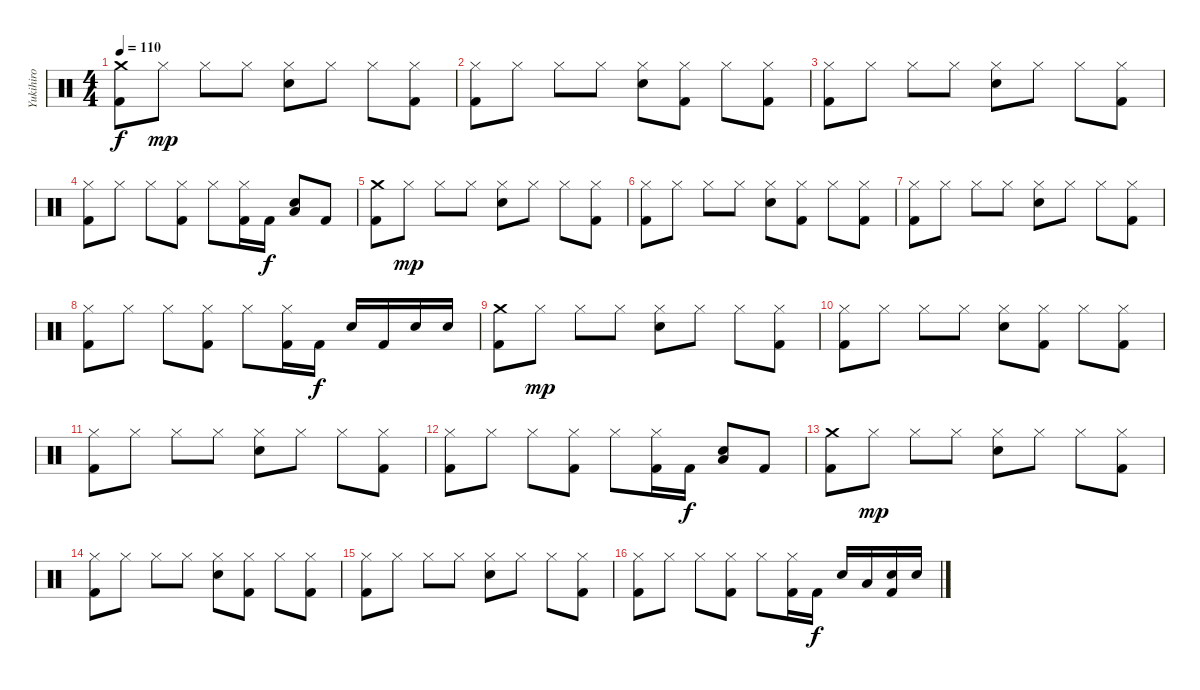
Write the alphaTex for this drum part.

\track ("Yukihiro " "Yukihiro ") {instrument percussion}
\staff {score}
\articulation defaults
\ts (4 4)
\tempo 110
\clef neutral
\ks c
("Crash medium (hit)" "Kick (hit) 2").8{dy f} "Hi-Hat (closed)".8{dy mp} "Hi-Hat (closed)".8 "Hi-Hat (closed)".8 ("Hi-Hat (closed)" "Electric Snare (hit)").8 "Hi-Hat (closed)".8 "Hi-Hat (closed)".8 ("Hi-Hat (closed)" "Kick (hit) 2").8 |
("Hi-Hat (closed)" "Kick (hit) 2").8 "Hi-Hat (closed)".8 "Hi-Hat (closed)".8 "Hi-Hat (closed)".8 ("Hi-Hat (closed)" "Electric Snare (hit)").8 ("Hi-Hat (closed)" "Kick (hit) 2").8 "Hi-Hat (closed)".8 ("Hi-Hat (closed)" "Kick (hit) 2").8 |
("Hi-Hat (closed)" "Kick (hit) 2").8 "Hi-Hat (closed)".8 "Hi-Hat (closed)".8 "Hi-Hat (closed)".8 ("Hi-Hat (closed)" "Electric Snare (hit)").8 "Hi-Hat (closed)".8 "Hi-Hat (closed)".8 ("Hi-Hat (closed)" "Kick (hit) 2").8 |
("Hi-Hat (closed)" "Kick (hit) 2").8 "Hi-Hat (closed)".8 "Hi-Hat (closed)".8 ("Hi-Hat (closed)" "Kick (hit) 2").8 "Hi-Hat (closed)".8 ("Hi-Hat (closed)" "Kick (hit) 2").16 "Kick (hit) 2".16{dy f} ("Electric Snare (hit)" "Low Floor Tom (hit)").8 "Kick (hit) 2".8 |
("Crash medium (hit)" "Kick (hit) 2").8 "Hi-Hat (closed)".8{dy mp} "Hi-Hat (closed)".8 "Hi-Hat (closed)".8 ("Hi-Hat (closed)" "Electric Snare (hit)").8 "Hi-Hat (closed)".8 "Hi-Hat (closed)".8 ("Hi-Hat (closed)" "Kick (hit) 2").8 |
("Hi-Hat (closed)" "Kick (hit) 2").8 "Hi-Hat (closed)".8 "Hi-Hat (closed)".8 "Hi-Hat (closed)".8 ("Hi-Hat (closed)" "Electric Snare (hit)").8 ("Hi-Hat (closed)" "Kick (hit) 2").8 "Hi-Hat (closed)".8 ("Hi-Hat (closed)" "Kick (hit) 2").8 |
("Hi-Hat (closed)" "Kick (hit) 2").8 "Hi-Hat (closed)".8 "Hi-Hat (closed)".8 "Hi-Hat (closed)".8 ("Hi-Hat (closed)" "Electric Snare (hit)").8 "Hi-Hat (closed)".8 "Hi-Hat (closed)".8 ("Hi-Hat (closed)" "Kick (hit) 2").8 |
("Hi-Hat (closed)" "Kick (hit) 2").8 "Hi-Hat (closed)".8 "Hi-Hat (closed)".8 ("Hi-Hat (closed)" "Kick (hit) 2").8 "Hi-Hat (closed)".8 ("Hi-Hat (closed)" "Kick (hit) 2").16 "Kick (hit) 2".16{dy f} "Electric Snare (hit)".16 "Kick (hit) 2".16 "Electric Snare (hit)".16 "Electric Snare (hit)".16 |
("Crash medium (hit)" "Kick (hit) 2").8 "Hi-Hat (closed)".8{dy mp} "Hi-Hat (closed)".8 "Hi-Hat (closed)".8 ("Hi-Hat (closed)" "Electric Snare (hit)").8 "Hi-Hat (closed)".8 "Hi-Hat (closed)".8 ("Hi-Hat (closed)" "Kick (hit) 2").8 |
("Hi-Hat (closed)" "Kick (hit) 2").8 "Hi-Hat (closed)".8 "Hi-Hat (closed)".8 "Hi-Hat (closed)".8 ("Hi-Hat (closed)" "Electric Snare (hit)").8 ("Hi-Hat (closed)" "Kick (hit) 2").8 "Hi-Hat (closed)".8 ("Hi-Hat (closed)" "Kick (hit) 2").8 |
("Hi-Hat (closed)" "Kick (hit) 2").8 "Hi-Hat (closed)".8 "Hi-Hat (closed)".8 "Hi-Hat (closed)".8 ("Hi-Hat (closed)" "Electric Snare (hit)").8 "Hi-Hat (closed)".8 "Hi-Hat (closed)".8 ("Hi-Hat (closed)" "Kick (hit) 2").8 |
("Hi-Hat (closed)" "Kick (hit) 2").8 "Hi-Hat (closed)".8 "Hi-Hat (closed)".8 ("Hi-Hat (closed)" "Kick (hit) 2").8 "Hi-Hat (closed)".8 ("Hi-Hat (closed)" "Kick (hit) 2").16 "Kick (hit) 2".16{dy f} ("Electric Snare (hit)" "Low Floor Tom (hit)").8 "Kick (hit) 2".8 |
("Crash medium (hit)" "Kick (hit) 2").8 "Hi-Hat (closed)".8{dy mp} "Hi-Hat (closed)".8 "Hi-Hat (closed)".8 ("Hi-Hat (closed)" "Electric Snare (hit)").8 "Hi-Hat (closed)".8 "Hi-Hat (closed)".8 ("Hi-Hat (closed)" "Kick (hit) 2").8 |
("Hi-Hat (closed)" "Kick (hit) 2").8 "Hi-Hat (closed)".8 "Hi-Hat (closed)".8 "Hi-Hat (closed)".8 ("Hi-Hat (closed)" "Electric Snare (hit)").8 ("Hi-Hat (closed)" "Kick (hit) 2").8 "Hi-Hat (closed)".8 ("Hi-Hat (closed)" "Kick (hit) 2").8 |
("Hi-Hat (closed)" "Kick (hit) 2").8 "Hi-Hat (closed)".8 "Hi-Hat (closed)".8 "Hi-Hat (closed)".8 ("Hi-Hat (closed)" "Electric Snare (hit)").8 "Hi-Hat (closed)".8 "Hi-Hat (closed)".8 ("Hi-Hat (closed)" "Kick (hit) 2").8 |
("Hi-Hat (closed)" "Kick (hit) 2").8 "Hi-Hat (closed)".8 "Hi-Hat (closed)".8 ("Hi-Hat (closed)" "Kick (hit) 2").8 "Hi-Hat (closed)".8 ("Hi-Hat (closed)" "Kick (hit) 2").16 "Kick (hit) 2".16{dy f} "Electric Snare (hit)".16 "Low Floor Tom (hit)".16 ("Electric Snare (hit)" "Kick (hit) 2").16 "Electric Snare (hit)".16
